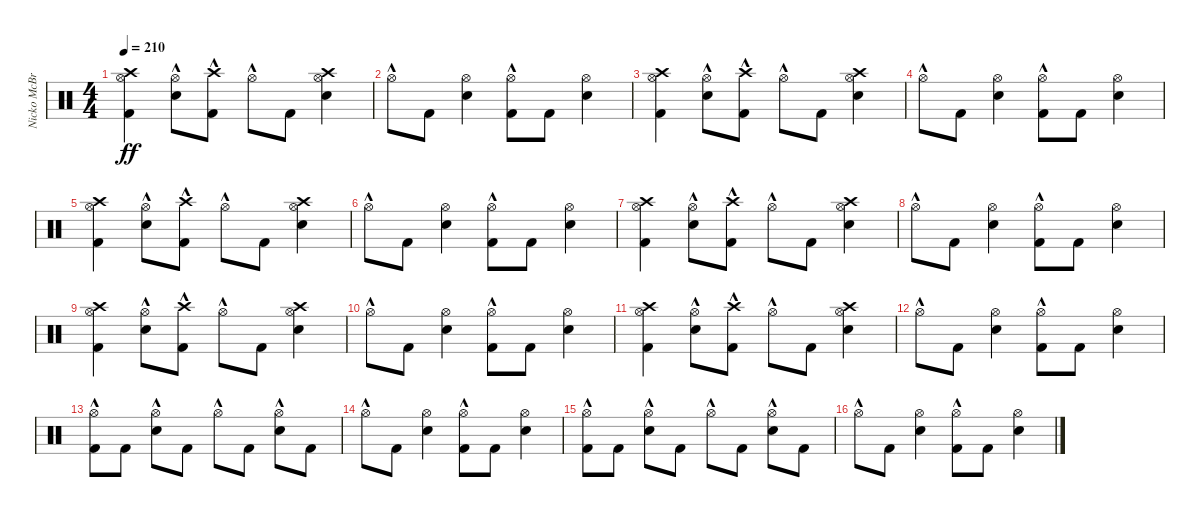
\track ("Nicko McBrain" "Nicko McBr") {instrument percussion}
\staff {score}
\articulation defaults
\ts (4 4)
\tempo 210
\clef neutral
\ks c
("Kick (hit) 2" "Hi-Hat (open)" "Crash high (hit)").4{dy ff} ("Snare (hit) 2" "Hi-Hat (open)"{hac}).8 ("Kick (hit) 2" "Crash high (hit)"{hac}).8 "Hi-Hat (open)"{hac}.8 "Kick (hit) 2".8 ("Snare (hit) 2" "Hi-Hat (open)" "Crash high (hit)").4 |
"Hi-Hat (open)"{hac}.8 "Kick (hit) 2".8 ("Snare (hit) 2" "Hi-Hat (open)").4 ("Kick (hit) 2" "Hi-Hat (open)"{hac}).8 "Kick (hit) 2".8 ("Snare (hit) 2" "Hi-Hat (open)").4 |
("Kick (hit) 2" "Hi-Hat (open)" "Crash high (hit)").4 ("Snare (hit) 2" "Hi-Hat (open)"{hac}).8 ("Kick (hit) 2" "Crash high (hit)"{hac}).8 "Hi-Hat (open)"{hac}.8 "Kick (hit) 2".8 ("Snare (hit) 2" "Hi-Hat (open)" "Crash high (hit)").4 |
"Hi-Hat (open)"{hac}.8 "Kick (hit) 2".8 ("Snare (hit) 2" "Hi-Hat (open)").4 ("Kick (hit) 2" "Hi-Hat (open)"{hac}).8 "Kick (hit) 2".8 ("Snare (hit) 2" "Hi-Hat (open)").4 |
("Kick (hit) 2" "Hi-Hat (open)" "Crash high (hit)").4 ("Snare (hit) 2" "Hi-Hat (open)"{hac}).8 ("Kick (hit) 2" "Crash high (hit)"{hac}).8 "Hi-Hat (open)"{hac}.8 "Kick (hit) 2".8 ("Snare (hit) 2" "Hi-Hat (open)" "Crash high (hit)").4 |
"Hi-Hat (open)"{hac}.8 "Kick (hit) 2".8 ("Snare (hit) 2" "Hi-Hat (open)").4 ("Kick (hit) 2" "Hi-Hat (open)"{hac}).8 "Kick (hit) 2".8 ("Snare (hit) 2" "Hi-Hat (open)").4 |
("Kick (hit) 2" "Hi-Hat (open)" "Crash high (hit)").4 ("Snare (hit) 2" "Hi-Hat (open)"{hac}).8 ("Kick (hit) 2" "Crash high (hit)"{hac}).8 "Hi-Hat (open)"{hac}.8 "Kick (hit) 2".8 ("Snare (hit) 2" "Hi-Hat (open)" "Crash high (hit)").4 |
"Hi-Hat (open)"{hac}.8 "Kick (hit) 2".8 ("Snare (hit) 2" "Hi-Hat (open)").4 ("Kick (hit) 2" "Hi-Hat (open)"{hac}).8 "Kick (hit) 2".8 ("Snare (hit) 2" "Hi-Hat (open)").4 |
("Kick (hit) 2" "Hi-Hat (open)" "Crash high (hit)").4 ("Snare (hit) 2" "Hi-Hat (open)"{hac}).8 ("Kick (hit) 2" "Crash high (hit)"{hac}).8 "Hi-Hat (open)"{hac}.8 "Kick (hit) 2".8 ("Snare (hit) 2" "Hi-Hat (open)" "Crash high (hit)").4 |
"Hi-Hat (open)"{hac}.8 "Kick (hit) 2".8 ("Snare (hit) 2" "Hi-Hat (open)").4 ("Kick (hit) 2" "Hi-Hat (open)"{hac}).8 "Kick (hit) 2".8 ("Snare (hit) 2" "Hi-Hat (open)").4 |
("Kick (hit) 2" "Hi-Hat (open)" "Crash high (hit)").4 ("Snare (hit) 2" "Hi-Hat (open)"{hac}).8 ("Kick (hit) 2" "Crash high (hit)"{hac}).8 "Hi-Hat (open)"{hac}.8 "Kick (hit) 2".8 ("Snare (hit) 2" "Hi-Hat (open)" "Crash high (hit)").4 |
"Hi-Hat (open)"{hac}.8 "Kick (hit) 2".8 ("Snare (hit) 2" "Hi-Hat (open)").4 ("Kick (hit) 2" "Hi-Hat (open)"{hac}).8 "Kick (hit) 2".8 ("Snare (hit) 2" "Hi-Hat (open)").4 |
("Kick (hit) 2" "Hi-Hat (open)"{hac}).8 "Kick (hit) 2".8 ("Snare (hit) 2" "Hi-Hat (open)"{hac}).8 "Kick (hit) 2".8 "Hi-Hat (open)"{hac}.8 "Kick (hit) 2".8 ("Snare (hit) 2" "Hi-Hat (open)"{hac}).8 "Kick (hit) 2".8 |
"Hi-Hat (open)"{hac}.8 "Kick (hit) 2".8 ("Snare (hit) 2" "Hi-Hat (open)").4 ("Kick (hit) 2" "Hi-Hat (open)"{hac}).8 "Kick (hit) 2".8 ("Snare (hit) 2" "Hi-Hat (open)").4 |
("Kick (hit) 2" "Hi-Hat (open)"{hac}).8 "Kick (hit) 2".8 ("Snare (hit) 2" "Hi-Hat (open)"{hac}).8 "Kick (hit) 2".8 "Hi-Hat (open)"{hac}.8 "Kick (hit) 2".8 ("Snare (hit) 2" "Hi-Hat (open)"{hac}).8 "Kick (hit) 2".8 |
"Hi-Hat (open)"{hac}.8 "Kick (hit) 2".8 ("Snare (hit) 2" "Hi-Hat (open)").4 ("Kick (hit) 2" "Hi-Hat (open)"{hac}).8 "Kick (hit) 2".8 ("Snare (hit) 2" "Hi-Hat (open)").4
